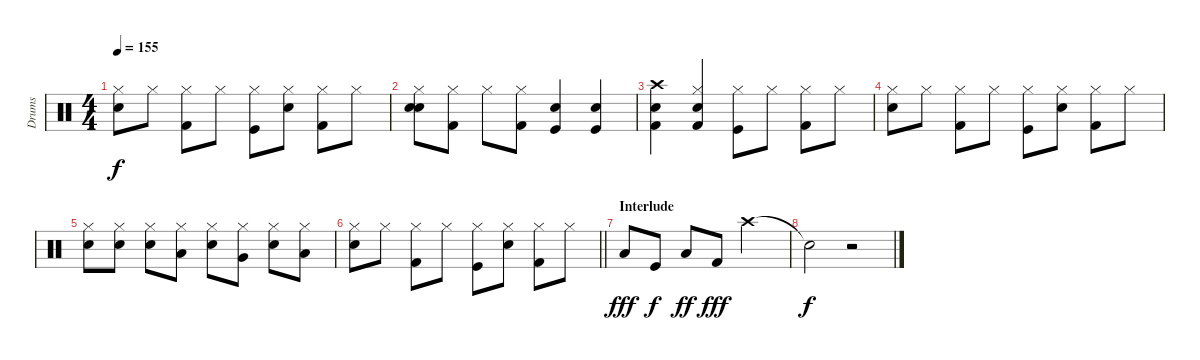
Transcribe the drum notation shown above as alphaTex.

\track ("Drums" "Drums") {instrument percussion}
\staff {score}
\articulation defaults
\ts (4 4)
\tempo 155
\clef neutral
\ks c
("Electric Snare (hit)" "Hi-Hat (closed)").8{dy f} "Hi-Hat (closed)".8 ("Kick (hit) 2" "Hi-Hat (closed)").8 "Hi-Hat (closed)".8 ("Kick (hit)" "Hi-Hat (closed)").8 ("Snare (hit) 2" "Hi-Hat (closed)").8 ("Kick (hit) 2" "Hi-Hat (closed)").8 "Hi-Hat (closed)".8 |
("Electric Snare (hit)" "Snare (hit) 2" "Hi-Hat (closed)").8 ("Kick (hit) 2" "Hi-Hat (closed)").8 "Hi-Hat (closed)".8 ("Kick (hit) 2" "Hi-Hat (closed)").8 ("Kick (hit)" "Electric Snare (hit)").4 ("Kick (hit)" "Electric Snare (hit)").4 |
("Kick (hit) 2" "Electric Snare (hit)" "Crash high (hit)").4 ("Kick (hit) 2" "Electric Snare (hit)" "Hi-Hat (closed)").4 ("Kick (hit)" "Hi-Hat (closed)").8 "Hi-Hat (closed)".8 ("Kick (hit) 2" "Hi-Hat (closed)").8 "Hi-Hat (closed)".8 |
("Electric Snare (hit)" "Hi-Hat (closed)").8 "Hi-Hat (closed)".8 ("Kick (hit) 2" "Hi-Hat (closed)").8 "Hi-Hat (closed)".8 ("Kick (hit)" "Hi-Hat (closed)").8 ("Snare (hit) 2" "Hi-Hat (closed)").8 ("Kick (hit) 2" "Hi-Hat (closed)").8 "Hi-Hat (closed)".8 |
("Electric Snare (hit)" "Hi-Hat (closed)").8 ("Snare (hit) 2" "Hi-Hat (closed)").8 ("Electric Snare (hit)" "Hi-Hat (closed)").8 ("Low Tom (hit)" "Hi-Hat (closed)").8 ("Electric Snare (hit)" "Hi-Hat (closed)").8 ("Very Low Tom (hit)" "Hi-Hat (closed)").8 ("Electric Snare (hit)" "Hi-Hat (closed)").8 ("Low Tom (hit)" "Hi-Hat (closed)").8 |
\barLineRight lightlight
("Electric Snare (hit)" "Hi-Hat (closed)").8 "Hi-Hat (closed)".8 ("Kick (hit) 2" "Hi-Hat (closed)").8 "Hi-Hat (closed)".8 ("Kick (hit)" "Hi-Hat (closed)").8 ("Snare (hit) 2" "Hi-Hat (closed)").8 ("Kick (hit) 2" "Hi-Hat (closed)").8 "Hi-Hat (closed)".8 |
\section ("" "Interlude")
"Low Floor Tom (hit)".8{dy fff} "Kick (hit)".8{dy f} "Low Floor Tom (hit)".8{dy ff} "Kick (hit) 2".8{dy fff} "Crash high (hit)".2 |
"Snare (hit)"{t}.2{dy f} r.2
